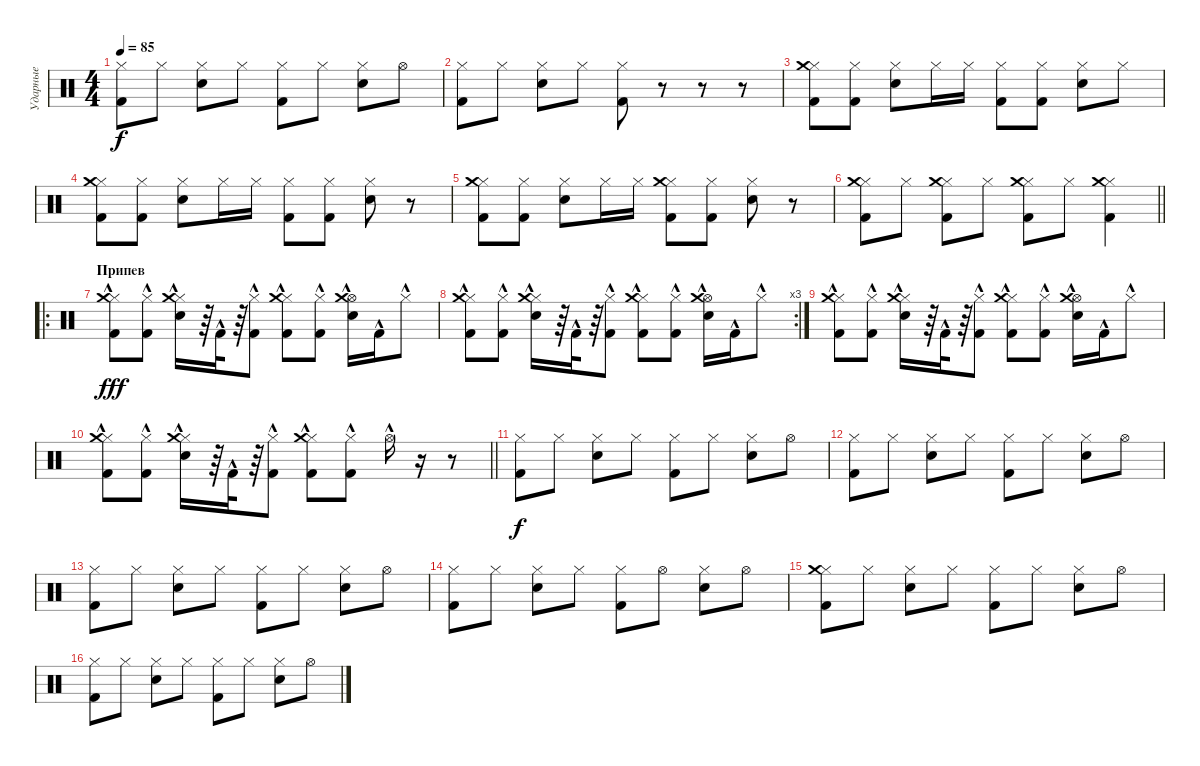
\track ("Ударные" "Ударные") {instrument percussion}
\staff {score}
\articulation defaults
\ts (4 4)
\tempo 85
\clef neutral
\ks c
("Hi-Hat (closed)" "Kick (hit) 2").8{dy f} "Hi-Hat (closed)".8 ("Hi-Hat (closed)" "Electric Snare (hit)").8 "Hi-Hat (closed)".8 ("Hi-Hat (closed)" "Kick (hit) 2").8 "Hi-Hat (closed)".8 ("Hi-Hat (closed)" "Electric Snare (hit)").8 "Hi-Hat (open)".8 |
("Hi-Hat (closed)" "Kick (hit) 2").8 "Hi-Hat (closed)".8 ("Hi-Hat (closed)" "Electric Snare (hit)").8 "Hi-Hat (closed)".8 ("Hi-Hat (closed)" "Kick (hit) 2").8 r.8 r.8 r.8 |
("Hi-Hat (closed)" "Kick (hit) 2" "Crash medium (hit)").8 ("Hi-Hat (closed)" "Kick (hit) 2").8 ("Hi-Hat (closed)" "Electric Snare (hit)").8 "Hi-Hat (closed)".16 "Hi-Hat (closed)".16 ("Hi-Hat (closed)" "Kick (hit) 2").8 ("Hi-Hat (closed)" "Kick (hit) 2").8 ("Hi-Hat (closed)" "Electric Snare (hit)").8 "Hi-Hat (closed)".8 |
("Hi-Hat (closed)" "Kick (hit) 2" "Crash medium (hit)").8 ("Hi-Hat (closed)" "Kick (hit) 2").8 ("Hi-Hat (closed)" "Electric Snare (hit)").8 "Hi-Hat (closed)".16 "Hi-Hat (closed)".16 ("Hi-Hat (closed)" "Kick (hit) 2").8 ("Hi-Hat (closed)" "Kick (hit) 2").8 ("Hi-Hat (closed)" "Electric Snare (hit)").8 r.8 |
("Hi-Hat (closed)" "Kick (hit) 2" "Crash medium (hit)").8 ("Hi-Hat (closed)" "Kick (hit) 2").8 ("Hi-Hat (closed)" "Electric Snare (hit)").8 "Hi-Hat (closed)".16 "Hi-Hat (closed)".16 ("Hi-Hat (closed)" "Kick (hit) 2" "Crash medium (hit)").8 ("Hi-Hat (closed)" "Kick (hit) 2").8 ("Hi-Hat (closed)" "Electric Snare (hit)").8 r.8 |
\barLineRight lightlight
("Hi-Hat (closed)" "Kick (hit) 2" "Crash medium (hit)").8 "Hi-Hat (closed)".8 ("Hi-Hat (closed)" "Kick (hit) 2" "Crash medium (hit)").8 "Hi-Hat (closed)".8 ("Hi-Hat (closed)" "Kick (hit) 2" "Crash medium (hit)").8 "Hi-Hat (closed)".8 ("Hi-Hat (closed)" "Kick (hit) 2" "Crash medium (hit)").4 |
\ro
\section ("" "Припев")
("Hi-Hat (closed)"{hac} "Kick (hit) 2"{hac} "Crash medium (hit)"{hac}).8{dy fff} ("Hi-Hat (closed)"{hac} "Kick (hit) 2"{hac}).8 ("Hi-Hat (closed)"{hac} "Electric Snare (hit)"{hac} "Crash medium (hit)"{hac}).16 r.64 "Kick (hit) 2"{hac}.32 r.64 ("Hi-Hat (closed)"{hac} "Kick (hit) 2"{hac}).8 ("Hi-Hat (closed)"{hac} "Kick (hit) 2"{hac} "Crash medium (hit)"{hac}).8 ("Hi-Hat (closed)"{hac} "Kick (hit) 2"{hac}).8 ("Hi-Hat (open)"{hac} "Electric Snare (hit)"{hac} "Crash medium (hit)"{hac}).16 "Kick (hit) 2"{hac}.16 "Hi-Hat (closed)"{hac}.8 |
\rc 3
("Hi-Hat (closed)"{hac} "Kick (hit) 2"{hac} "Crash medium (hit)"{hac}).8 ("Hi-Hat (closed)"{hac} "Kick (hit) 2"{hac}).8 ("Hi-Hat (closed)"{hac} "Electric Snare (hit)"{hac} "Crash medium (hit)"{hac}).16 r.64 "Kick (hit) 2"{hac}.32 r.64 ("Hi-Hat (closed)"{hac} "Kick (hit) 2"{hac}).8 ("Hi-Hat (closed)"{hac} "Kick (hit) 2"{hac} "Crash medium (hit)"{hac}).8 ("Hi-Hat (closed)"{hac} "Kick (hit) 2"{hac}).8 ("Hi-Hat (open)"{hac} "Electric Snare (hit)"{hac} "Crash medium (hit)"{hac}).16 "Kick (hit) 2"{hac}.16 "Hi-Hat (closed)"{hac}.8 |
("Hi-Hat (closed)"{hac} "Kick (hit) 2"{hac} "Crash medium (hit)"{hac}).8 ("Hi-Hat (closed)"{hac} "Kick (hit) 2"{hac}).8 ("Hi-Hat (closed)"{hac} "Electric Snare (hit)"{hac} "Crash medium (hit)"{hac}).16 r.64 "Kick (hit) 2"{hac}.32 r.64 ("Hi-Hat (closed)"{hac} "Kick (hit) 2"{hac}).8 ("Hi-Hat (closed)"{hac} "Kick (hit) 2"{hac} "Crash medium (hit)"{hac}).8 ("Hi-Hat (closed)"{hac} "Kick (hit) 2"{hac}).8 ("Hi-Hat (open)"{hac} "Electric Snare (hit)"{hac} "Crash medium (hit)"{hac}).16 "Kick (hit) 2"{hac}.16 "Hi-Hat (closed)"{hac}.8 |
\barLineRight lightlight
("Hi-Hat (closed)"{hac} "Kick (hit) 2"{hac} "Crash medium (hit)"{hac}).8 ("Hi-Hat (closed)"{hac} "Kick (hit) 2"{hac}).8 ("Hi-Hat (closed)"{hac} "Electric Snare (hit)"{hac} "Crash medium (hit)"{hac}).16 r.64 "Kick (hit) 2"{hac}.32 r.64 ("Hi-Hat (closed)"{hac} "Kick (hit) 2"{hac}).8 ("Hi-Hat (closed)"{hac} "Kick (hit) 2"{hac} "Crash medium (hit)"{hac}).8 ("Hi-Hat (closed)"{hac} "Kick (hit) 2"{hac}).8 "Hi-Hat (open)"{hac}.16 r.16 r.8 |
("Hi-Hat (closed)" "Kick (hit) 2").8{dy f} "Hi-Hat (closed)".8 ("Hi-Hat (closed)" "Electric Snare (hit)").8 "Hi-Hat (closed)".8 ("Hi-Hat (closed)" "Kick (hit) 2").8 "Hi-Hat (closed)".8 ("Hi-Hat (closed)" "Electric Snare (hit)").8 "Hi-Hat (open)".8 |
("Hi-Hat (closed)" "Kick (hit) 2").8 "Hi-Hat (closed)".8 ("Hi-Hat (closed)" "Electric Snare (hit)").8 "Hi-Hat (closed)".8 ("Hi-Hat (closed)" "Kick (hit) 2").8 "Hi-Hat (closed)".8 ("Hi-Hat (closed)" "Electric Snare (hit)").8 "Hi-Hat (open)".8 |
("Hi-Hat (closed)" "Kick (hit) 2").8 "Hi-Hat (closed)".8 ("Hi-Hat (closed)" "Electric Snare (hit)").8 "Hi-Hat (closed)".8 ("Hi-Hat (closed)" "Kick (hit) 2").8 "Hi-Hat (closed)".8 ("Hi-Hat (closed)" "Electric Snare (hit)").8 "Hi-Hat (open)".8 |
("Hi-Hat (closed)" "Kick (hit) 2").8 "Hi-Hat (closed)".8 ("Hi-Hat (closed)" "Electric Snare (hit)").8 "Hi-Hat (closed)".8 ("Hi-Hat (closed)" "Kick (hit) 2").8 "Hi-Hat (open)".8 ("Hi-Hat (closed)" "Electric Snare (hit)").8 "Hi-Hat (open)".8 |
("Hi-Hat (closed)" "Kick (hit) 2" "Crash medium (hit)").8 "Hi-Hat (closed)".8 ("Hi-Hat (closed)" "Electric Snare (hit)").8 "Hi-Hat (closed)".8 ("Hi-Hat (closed)" "Kick (hit) 2").8 "Hi-Hat (closed)".8 ("Hi-Hat (closed)" "Electric Snare (hit)").8 "Hi-Hat (open)".8 |
("Hi-Hat (closed)" "Kick (hit) 2").8 "Hi-Hat (closed)".8 ("Hi-Hat (closed)" "Electric Snare (hit)").8 "Hi-Hat (closed)".8 ("Hi-Hat (closed)" "Kick (hit) 2").8 "Hi-Hat (closed)".8 ("Hi-Hat (closed)" "Electric Snare (hit)").8 "Hi-Hat (open)".8
